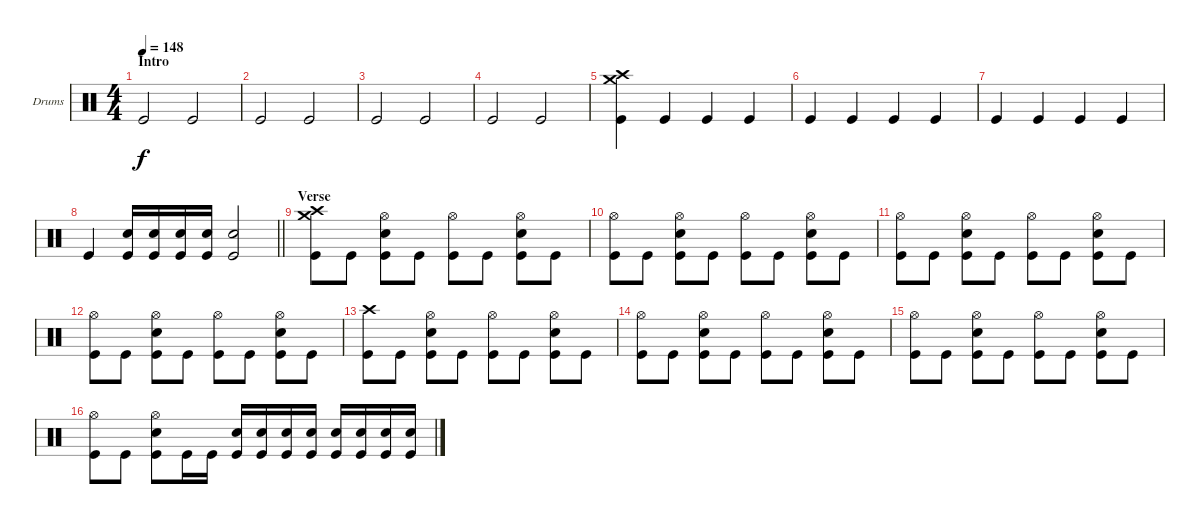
\bracketExtendMode groupsimilarinstruments
\firstSystemTrackNameOrientation horizontal
\otherSystemsTrackNameOrientation horizontal
\track ("Drumkit" "Drums") {instrument percussion}
\staff {score}
\articulation defaults
\ts (4 4)
\beaming (8 2 2 2 2)
\section ("" "Intro")
\tempo 148
\clef neutral
\ks c "Kick (hit)".2{dy f} "Kick (hit)".2
|
"Kick (hit)".2 "Kick (hit)".2 |
"Kick (hit)".2 "Kick (hit)".2 |
"Kick (hit)".2 "Kick (hit)".2 |
("Crash high (hit)" "Crash medium (hit)" "Kick (hit)").4 "Kick (hit)".4 "Kick (hit)".4 "Kick (hit)".4 |
"Kick (hit)".4 "Kick (hit)".4 "Kick (hit)".4 "Kick (hit)".4 |
"Kick (hit)".4 "Kick (hit)".4 "Kick (hit)".4 "Kick (hit)".4 |
\barLineRight lightlight "Kick (hit)".4
("Snare (hit) 2" "Kick (hit)").16 ("Snare (hit) 2" "Kick (hit)").16 ("Snare (hit) 2" "Kick (hit)").16 ("Snare (hit) 2" "Kick (hit)").16 ("Snare (hit) 2" "Kick (hit)").2 |
\section ("" "Verse")
("Crash high (hit)" "Crash medium (hit)" "Kick (hit)").8 "Kick (hit)".8 ("Hi-Hat (open)" "Snare (hit) 2" "Kick (hit)").8 "Kick (hit)".8 ("Hi-Hat (open)" "Kick (hit)").8 "Kick (hit)".8 ("Hi-Hat (open)" "Snare (hit) 2" "Kick (hit)").8 "Kick (hit)".8 |
("Hi-Hat (open)" "Kick (hit)").8 "Kick (hit)".8 ("Hi-Hat (open)" "Snare (hit) 2" "Kick (hit)").8 "Kick (hit)".8 ("Hi-Hat (open)" "Kick (hit)").8 "Kick (hit)".8 ("Hi-Hat (open)" "Snare (hit) 2" "Kick (hit)").8 "Kick (hit)".8 |
("Hi-Hat (open)" "Kick (hit)").8 "Kick (hit)".8 ("Hi-Hat (open)" "Snare (hit) 2" "Kick (hit)").8 "Kick (hit)".8 ("Hi-Hat (open)" "Kick (hit)").8 "Kick (hit)".8 ("Hi-Hat (open)" "Snare (hit) 2" "Kick (hit)").8 "Kick (hit)".8 |
("Hi-Hat (open)" "Kick (hit)").8 "Kick (hit)".8 ("Hi-Hat (open)" "Snare (hit) 2" "Kick (hit)").8 "Kick (hit)".8 ("Hi-Hat (open)" "Kick (hit)").8 "Kick (hit)".8 ("Hi-Hat (open)" "Snare (hit) 2" "Kick (hit)").8 "Kick (hit)".8 |
("Crash high (hit)" "Kick (hit)").8 "Kick (hit)".8 ("Hi-Hat (open)" "Snare (hit) 2" "Kick (hit)").8 "Kick (hit)".8 ("Hi-Hat (open)" "Kick (hit)").8 "Kick (hit)".8 ("Hi-Hat (open)" "Snare (hit) 2" "Kick (hit)").8 "Kick (hit)".8 |
("Hi-Hat (open)" "Kick (hit)").8 "Kick (hit)".8 ("Hi-Hat (open)" "Snare (hit) 2" "Kick (hit)").8 "Kick (hit)".8 ("Hi-Hat (open)" "Kick (hit)").8 "Kick (hit)".8 ("Hi-Hat (open)" "Snare (hit) 2" "Kick (hit)").8 "Kick (hit)".8 |
("Hi-Hat (open)" "Kick (hit)").8 "Kick (hit)".8 ("Hi-Hat (open)" "Snare (hit) 2" "Kick (hit)").8 "Kick (hit)".8 ("Hi-Hat (open)" "Kick (hit)").8 "Kick (hit)".8 ("Hi-Hat (open)" "Snare (hit) 2" "Kick (hit)").8 "Kick (hit)".8 |
("Hi-Hat (open)" "Kick (hit)").8 "Kick (hit)".8 ("Hi-Hat (open)" "Snare (hit) 2" "Kick (hit)").8 "Kick (hit)".16 "Kick (hit)".16 ("Snare (hit) 2" "Kick (hit)").16 ("Snare (hit) 2" "Kick (hit)").16 ("Snare (hit) 2" "Kick (hit)").16 ("Snare (hit) 2" "Kick (hit)").16 ("Snare (hit) 2" "Kick (hit)").16 ("Snare (hit) 2" "Kick (hit)").16 ("Snare (hit) 2" "Kick (hit)").16 ("Snare (hit) 2" "Kick (hit)").16
